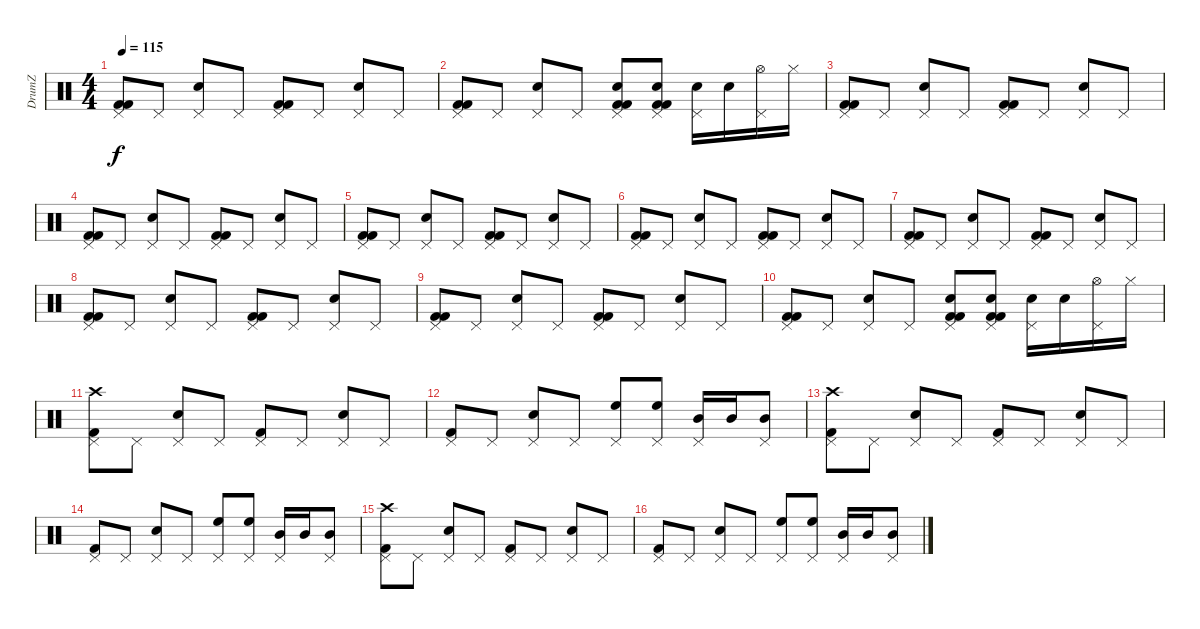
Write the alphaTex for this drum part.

\track ("DrumZ" "DrumZ") {instrument percussion}
\staff {score}
\articulation defaults
\ts (4 4)
\tempo 115
\clef neutral
\ks c
("Pedal Hi-Hat (hit)" "Kick (hit) 2" "Kick (hit) 2").8{dy f} "Pedal Hi-Hat (hit)".8 ("Pedal Hi-Hat (hit)" "Electric Snare (hit)").8 "Pedal Hi-Hat (hit)".8 ("Pedal Hi-Hat (hit)" "Kick (hit) 2" "Kick (hit) 2").8 "Pedal Hi-Hat (hit)".8 ("Pedal Hi-Hat (hit)" "Electric Snare (hit)").8 "Pedal Hi-Hat (hit)".8 |
("Pedal Hi-Hat (hit)" "Kick (hit) 2" "Kick (hit) 2").8 "Pedal Hi-Hat (hit)".8 ("Pedal Hi-Hat (hit)" "Electric Snare (hit)").8 "Pedal Hi-Hat (hit)".8 ("Pedal Hi-Hat (hit)" "Snare (hit) 2" "Kick (hit) 2" "Kick (hit) 2").8 ("Pedal Hi-Hat (hit)" "Snare (hit) 2" "Kick (hit) 2" "Kick (hit) 2").8 ("Pedal Hi-Hat (hit)" "Electric Snare (hit)").16 "Electric Snare (hit)".16 ("Pedal Hi-Hat (hit)" "Hi-Hat (open)").16 "Hi-Hat (closed)".16 |
("Pedal Hi-Hat (hit)" "Kick (hit) 2" "Kick (hit) 2").8 "Pedal Hi-Hat (hit)".8 ("Pedal Hi-Hat (hit)" "Electric Snare (hit)").8 "Pedal Hi-Hat (hit)".8 ("Pedal Hi-Hat (hit)" "Kick (hit) 2" "Kick (hit) 2").8 "Pedal Hi-Hat (hit)".8 ("Pedal Hi-Hat (hit)" "Electric Snare (hit)").8 "Pedal Hi-Hat (hit)".8 |
("Pedal Hi-Hat (hit)" "Kick (hit) 2" "Kick (hit) 2").8 "Pedal Hi-Hat (hit)".8 ("Pedal Hi-Hat (hit)" "Electric Snare (hit)").8 "Pedal Hi-Hat (hit)".8 ("Pedal Hi-Hat (hit)" "Kick (hit) 2" "Kick (hit) 2").8 "Pedal Hi-Hat (hit)".8 ("Pedal Hi-Hat (hit)" "Electric Snare (hit)").8 "Pedal Hi-Hat (hit)".8 |
("Pedal Hi-Hat (hit)" "Kick (hit) 2" "Kick (hit) 2").8 "Pedal Hi-Hat (hit)".8 ("Pedal Hi-Hat (hit)" "Electric Snare (hit)").8 "Pedal Hi-Hat (hit)".8 ("Pedal Hi-Hat (hit)" "Kick (hit) 2" "Kick (hit) 2").8 "Pedal Hi-Hat (hit)".8 ("Pedal Hi-Hat (hit)" "Electric Snare (hit)").8 "Pedal Hi-Hat (hit)".8 |
("Pedal Hi-Hat (hit)" "Kick (hit) 2" "Kick (hit) 2").8 "Pedal Hi-Hat (hit)".8 ("Pedal Hi-Hat (hit)" "Electric Snare (hit)").8 "Pedal Hi-Hat (hit)".8 ("Pedal Hi-Hat (hit)" "Kick (hit) 2" "Kick (hit) 2").8 "Pedal Hi-Hat (hit)".8 ("Pedal Hi-Hat (hit)" "Electric Snare (hit)").8 "Pedal Hi-Hat (hit)".8 |
("Pedal Hi-Hat (hit)" "Kick (hit) 2" "Kick (hit) 2").8 "Pedal Hi-Hat (hit)".8 ("Pedal Hi-Hat (hit)" "Electric Snare (hit)").8 "Pedal Hi-Hat (hit)".8 ("Pedal Hi-Hat (hit)" "Kick (hit) 2" "Kick (hit) 2").8 "Pedal Hi-Hat (hit)".8 ("Pedal Hi-Hat (hit)" "Electric Snare (hit)").8 "Pedal Hi-Hat (hit)".8 |
("Pedal Hi-Hat (hit)" "Kick (hit) 2" "Kick (hit) 2").8 "Pedal Hi-Hat (hit)".8 ("Pedal Hi-Hat (hit)" "Electric Snare (hit)").8 "Pedal Hi-Hat (hit)".8 ("Pedal Hi-Hat (hit)" "Kick (hit) 2" "Kick (hit) 2").8 "Pedal Hi-Hat (hit)".8 ("Pedal Hi-Hat (hit)" "Electric Snare (hit)").8 "Pedal Hi-Hat (hit)".8 |
("Pedal Hi-Hat (hit)" "Kick (hit) 2" "Kick (hit) 2").8 "Pedal Hi-Hat (hit)".8 ("Pedal Hi-Hat (hit)" "Electric Snare (hit)").8 "Pedal Hi-Hat (hit)".8 ("Pedal Hi-Hat (hit)" "Kick (hit) 2" "Kick (hit) 2").8 "Pedal Hi-Hat (hit)".8 ("Pedal Hi-Hat (hit)" "Electric Snare (hit)").8 "Pedal Hi-Hat (hit)".8 |
("Pedal Hi-Hat (hit)" "Kick (hit) 2" "Kick (hit) 2").8 "Pedal Hi-Hat (hit)".8 ("Pedal Hi-Hat (hit)" "Electric Snare (hit)").8 "Pedal Hi-Hat (hit)".8 ("Pedal Hi-Hat (hit)" "Snare (hit) 2" "Kick (hit) 2" "Kick (hit) 2").8 ("Pedal Hi-Hat (hit)" "Snare (hit) 2" "Kick (hit) 2" "Kick (hit) 2").8 ("Pedal Hi-Hat (hit)" "Electric Snare (hit)").16 "Electric Snare (hit)".16 ("Pedal Hi-Hat (hit)" "Hi-Hat (open)").16 "Hi-Hat (closed)".16 |
("Pedal Hi-Hat (hit)" "Crash high (hit)" "Kick (hit) 2").8 "Pedal Hi-Hat (hit)".8 ("Pedal Hi-Hat (hit)" "Electric Snare (hit)").8 "Pedal Hi-Hat (hit)".8 ("Pedal Hi-Hat (hit)" "Kick (hit) 2").8 "Pedal Hi-Hat (hit)".8 ("Pedal Hi-Hat (hit)" "Electric Snare (hit)").8 "Pedal Hi-Hat (hit)".8 |
("Pedal Hi-Hat (hit)" "Kick (hit) 2").8 "Pedal Hi-Hat (hit)".8 ("Pedal Hi-Hat (hit)" "Electric Snare (hit)").8 "Pedal Hi-Hat (hit)".8 ("Pedal Hi-Hat (hit)" "High Floor Tom (hit)").8 ("Pedal Hi-Hat (hit)" "High Floor Tom (hit)").8 ("Pedal Hi-Hat (hit)" "Mid Tom (hit)").16 "Mid Tom (hit)".16 ("Pedal Hi-Hat (hit)" "Mid Tom (hit)").8 |
("Pedal Hi-Hat (hit)" "Crash high (hit)" "Kick (hit) 2").8 "Pedal Hi-Hat (hit)".8 ("Pedal Hi-Hat (hit)" "Electric Snare (hit)").8 "Pedal Hi-Hat (hit)".8 ("Pedal Hi-Hat (hit)" "Kick (hit) 2").8 "Pedal Hi-Hat (hit)".8 ("Pedal Hi-Hat (hit)" "Electric Snare (hit)").8 "Pedal Hi-Hat (hit)".8 |
("Pedal Hi-Hat (hit)" "Kick (hit) 2").8 "Pedal Hi-Hat (hit)".8 ("Pedal Hi-Hat (hit)" "Electric Snare (hit)").8 "Pedal Hi-Hat (hit)".8 ("Pedal Hi-Hat (hit)" "High Floor Tom (hit)").8 ("Pedal Hi-Hat (hit)" "High Floor Tom (hit)").8 ("Pedal Hi-Hat (hit)" "Mid Tom (hit)").16 "Mid Tom (hit)".16 ("Pedal Hi-Hat (hit)" "Mid Tom (hit)").8 |
("Pedal Hi-Hat (hit)" "Crash high (hit)" "Kick (hit) 2").8 "Pedal Hi-Hat (hit)".8 ("Pedal Hi-Hat (hit)" "Electric Snare (hit)").8 "Pedal Hi-Hat (hit)".8 ("Pedal Hi-Hat (hit)" "Kick (hit) 2").8 "Pedal Hi-Hat (hit)".8 ("Pedal Hi-Hat (hit)" "Electric Snare (hit)").8 "Pedal Hi-Hat (hit)".8 |
("Pedal Hi-Hat (hit)" "Kick (hit) 2").8 "Pedal Hi-Hat (hit)".8 ("Pedal Hi-Hat (hit)" "Electric Snare (hit)").8 "Pedal Hi-Hat (hit)".8 ("Pedal Hi-Hat (hit)" "High Floor Tom (hit)").8 ("Pedal Hi-Hat (hit)" "High Floor Tom (hit)").8 ("Pedal Hi-Hat (hit)" "Mid Tom (hit)").16 "Mid Tom (hit)".16 ("Pedal Hi-Hat (hit)" "Mid Tom (hit)").8
